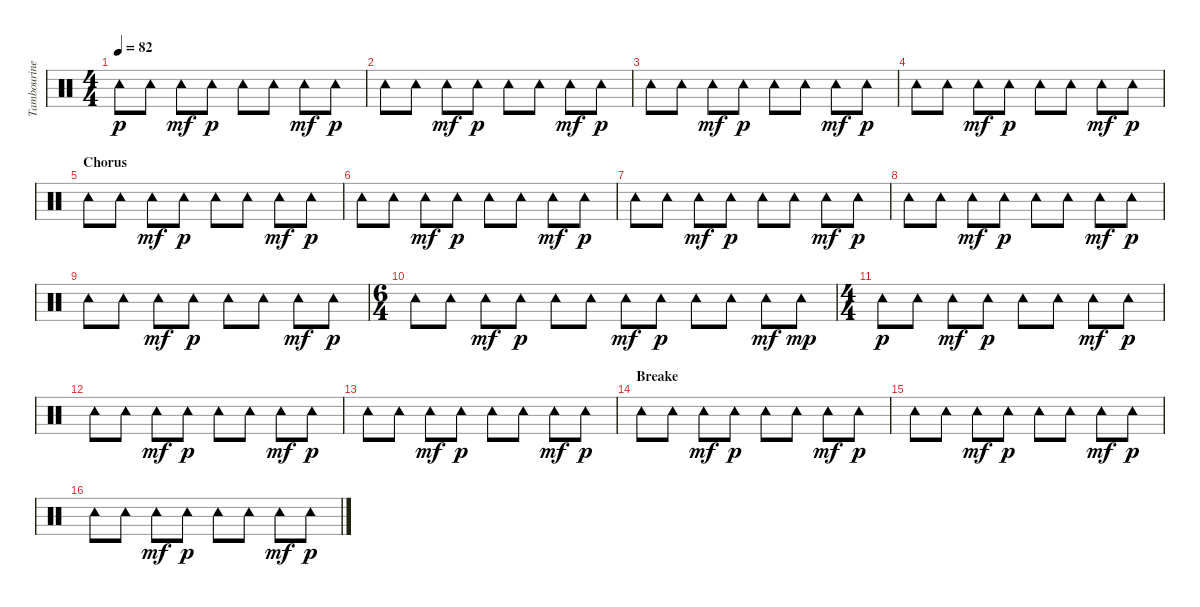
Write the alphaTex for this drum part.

\track ("Tambourine" "Tambourine") {instrument percussion}
\staff {score}
\articulation defaults
\ts (4 4)
\tempo 82
\clef neutral
\ks c "Tambourine (hit)".8{dy p} "Tambourine (hit)".8 "Tambourine (hit)".8{dy mf} "Tambourine (hit)".8{dy p} "Tambourine (hit)".8 "Tambourine (hit)".8 "Tambourine (hit)".8{dy mf} "Tambourine (hit)".8{dy p}
|
"Tambourine (hit)".8 "Tambourine (hit)".8 "Tambourine (hit)".8{dy mf} "Tambourine (hit)".8{dy p} "Tambourine (hit)".8 "Tambourine (hit)".8 "Tambourine (hit)".8{dy mf} "Tambourine (hit)".8{dy p} |
"Tambourine (hit)".8 "Tambourine (hit)".8 "Tambourine (hit)".8{dy mf} "Tambourine (hit)".8{dy p} "Tambourine (hit)".8 "Tambourine (hit)".8 "Tambourine (hit)".8{dy mf} "Tambourine (hit)".8{dy p} |
"Tambourine (hit)".8 "Tambourine (hit)".8 "Tambourine (hit)".8{dy mf} "Tambourine (hit)".8{dy p} "Tambourine (hit)".8 "Tambourine (hit)".8 "Tambourine (hit)".8{dy mf} "Tambourine (hit)".8{dy p} |
\section ("" "Chorus")
"Tambourine (hit)".8 "Tambourine (hit)".8 "Tambourine (hit)".8{dy mf} "Tambourine (hit)".8{dy p} "Tambourine (hit)".8 "Tambourine (hit)".8 "Tambourine (hit)".8{dy mf} "Tambourine (hit)".8{dy p} |
"Tambourine (hit)".8 "Tambourine (hit)".8 "Tambourine (hit)".8{dy mf} "Tambourine (hit)".8{dy p} "Tambourine (hit)".8 "Tambourine (hit)".8 "Tambourine (hit)".8{dy mf} "Tambourine (hit)".8{dy p} |
"Tambourine (hit)".8 "Tambourine (hit)".8 "Tambourine (hit)".8{dy mf} "Tambourine (hit)".8{dy p} "Tambourine (hit)".8 "Tambourine (hit)".8 "Tambourine (hit)".8{dy mf} "Tambourine (hit)".8{dy p} |
"Tambourine (hit)".8 "Tambourine (hit)".8 "Tambourine (hit)".8{dy mf} "Tambourine (hit)".8{dy p} "Tambourine (hit)".8 "Tambourine (hit)".8 "Tambourine (hit)".8{dy mf} "Tambourine (hit)".8{dy p} |
"Tambourine (hit)".8 "Tambourine (hit)".8 "Tambourine (hit)".8{dy mf} "Tambourine (hit)".8{dy p} "Tambourine (hit)".8 "Tambourine (hit)".8 "Tambourine (hit)".8{dy mf} "Tambourine (hit)".8{dy p} |
\ts (6 4)
"Tambourine (hit)".8 "Tambourine (hit)".8 "Tambourine (hit)".8{dy mf} "Tambourine (hit)".8{dy p} "Tambourine (hit)".8 "Tambourine (hit)".8 "Tambourine (hit)".8{dy mf} "Tambourine (hit)".8{dy p} "Tambourine (hit)".8 "Tambourine (hit)".8 "Tambourine (hit)".8{dy mf} "Tambourine (hit)".8{dy mp} |
\ts (4 4)
"Tambourine (hit)".8{dy p} "Tambourine (hit)".8 "Tambourine (hit)".8{dy mf} "Tambourine (hit)".8{dy p} "Tambourine (hit)".8 "Tambourine (hit)".8 "Tambourine (hit)".8{dy mf} "Tambourine (hit)".8{dy p} |
"Tambourine (hit)".8 "Tambourine (hit)".8 "Tambourine (hit)".8{dy mf} "Tambourine (hit)".8{dy p} "Tambourine (hit)".8 "Tambourine (hit)".8 "Tambourine (hit)".8{dy mf} "Tambourine (hit)".8{dy p} |
"Tambourine (hit)".8 "Tambourine (hit)".8 "Tambourine (hit)".8{dy mf} "Tambourine (hit)".8{dy p} "Tambourine (hit)".8 "Tambourine (hit)".8 "Tambourine (hit)".8{dy mf} "Tambourine (hit)".8{dy p} |
\section ("" "Breake")
"Tambourine (hit)".8 "Tambourine (hit)".8 "Tambourine (hit)".8{dy mf} "Tambourine (hit)".8{dy p} "Tambourine (hit)".8 "Tambourine (hit)".8 "Tambourine (hit)".8{dy mf} "Tambourine (hit)".8{dy p} |
"Tambourine (hit)".8 "Tambourine (hit)".8 "Tambourine (hit)".8{dy mf} "Tambourine (hit)".8{dy p} "Tambourine (hit)".8 "Tambourine (hit)".8 "Tambourine (hit)".8{dy mf} "Tambourine (hit)".8{dy p} |
"Tambourine (hit)".8 "Tambourine (hit)".8 "Tambourine (hit)".8{dy mf} "Tambourine (hit)".8{dy p} "Tambourine (hit)".8 "Tambourine (hit)".8 "Tambourine (hit)".8{dy mf} "Tambourine (hit)".8{dy p}
